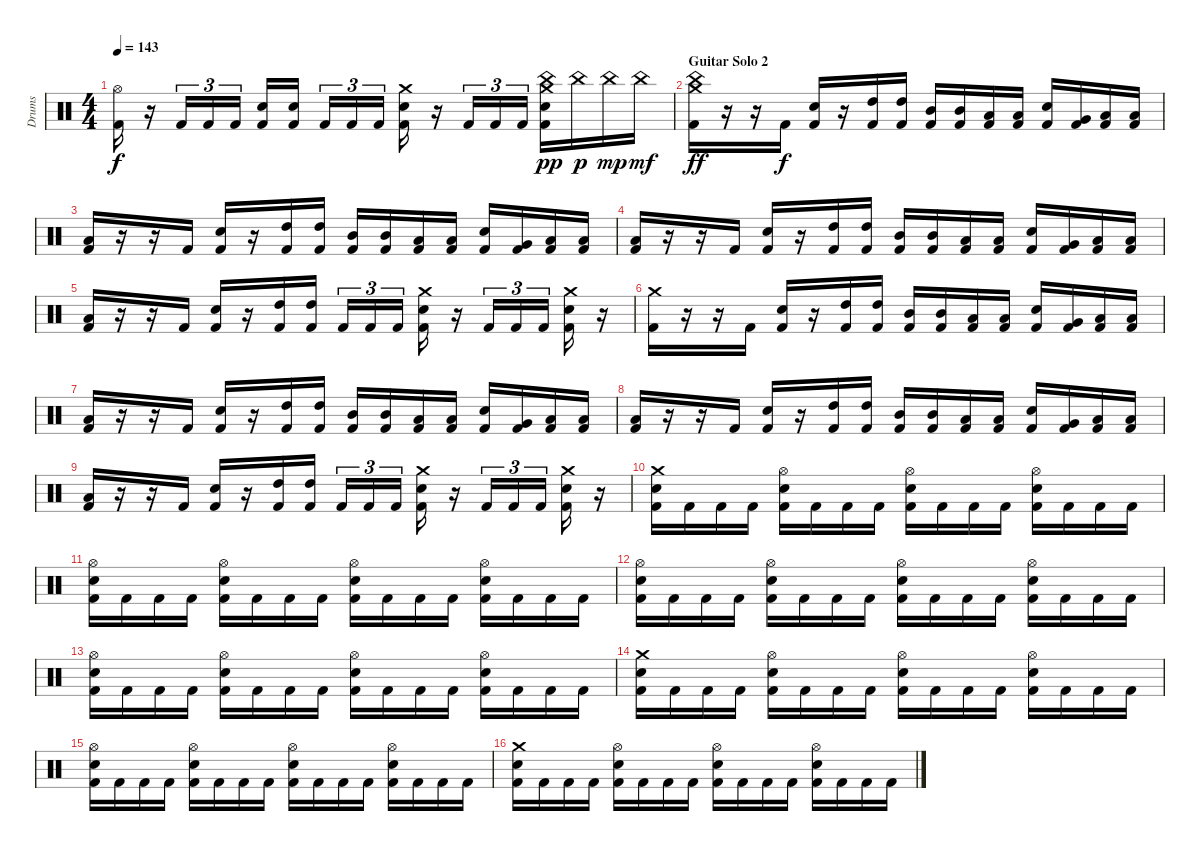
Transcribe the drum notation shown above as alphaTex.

\track ("Drums" "Drums") {instrument percussion}
\staff {score}
\articulation defaults
\ts (4 4)
\tempo 143
\clef neutral
\ks c
("Hi-Hat (open)" "Kick (hit) 2").16{dy f} r.16 "Kick (hit) 2".16{tu (3 2)} "Kick (hit) 2".16{tu (3 2)} "Kick (hit) 2".16{tu (3 2)} ("Electric Snare (hit)" "Kick (hit) 2").16 ("Electric Snare (hit)" "Kick (hit) 2").16 "Kick (hit) 2".16{tu (3 2)} "Kick (hit) 2".16{tu (3 2)} "Kick (hit) 2".16{tu (3 2)} ("Crash medium (hit)" "Electric Snare (hit)" "Kick (hit) 2").16 r.16 "Kick (hit) 2".16{tu (3 2)} "Kick (hit) 2".16{tu (3 2)} "Kick (hit) 2".16{tu (3 2)} ("Crash medium (hit)" "China (hit)" "Electric Snare (hit)" "Kick (hit) 2").16{dy pp} "China (hit)".16{dy p} "China (hit)".16{dy mp} "China (hit)".16{dy mf} |
\section ("" "Guitar Solo 2")
("Crash medium (hit)" "China (hit)" "Kick (hit) 2").16{dy ff} r.16 r.16 "Kick (hit) 2".16{dy f} ("Electric Snare (hit)" "Kick (hit) 2").16 r.16 ("High Tom (hit)" "Kick (hit) 2").16 ("High Tom (hit)" "Kick (hit) 2").16 ("Mid Tom (hit)" "Kick (hit) 2").16 ("Mid Tom (hit)" "Kick (hit) 2").16 ("Low Tom (hit)" "Kick (hit) 2").16 ("Low Tom (hit)" "Kick (hit) 2").16 ("Electric Snare (hit)" "Kick (hit) 2").16 ("Very Low Tom (hit)" "Kick (hit) 2").16 ("Low Floor Tom (hit)" "Kick (hit) 2").16 ("Low Floor Tom (hit)" "Kick (hit) 2").16 |
("Low Floor Tom (hit)" "Kick (hit) 2").16 r.16 r.16 "Kick (hit) 2".16 ("Electric Snare (hit)" "Kick (hit) 2").16 r.16 ("High Tom (hit)" "Kick (hit) 2").16 ("High Tom (hit)" "Kick (hit) 2").16 ("Mid Tom (hit)" "Kick (hit) 2").16 ("Mid Tom (hit)" "Kick (hit) 2").16 ("Low Tom (hit)" "Kick (hit) 2").16 ("Low Tom (hit)" "Kick (hit) 2").16 ("Electric Snare (hit)" "Kick (hit) 2").16 ("Very Low Tom (hit)" "Kick (hit) 2").16 ("Low Floor Tom (hit)" "Kick (hit) 2").16 ("Low Floor Tom (hit)" "Kick (hit) 2").16 |
("Low Floor Tom (hit)" "Kick (hit) 2").16 r.16 r.16 "Kick (hit) 2".16 ("Electric Snare (hit)" "Kick (hit) 2").16 r.16 ("High Tom (hit)" "Kick (hit) 2").16 ("High Tom (hit)" "Kick (hit) 2").16 ("Mid Tom (hit)" "Kick (hit) 2").16 ("Mid Tom (hit)" "Kick (hit) 2").16 ("Low Tom (hit)" "Kick (hit) 2").16 ("Low Tom (hit)" "Kick (hit) 2").16 ("Electric Snare (hit)" "Kick (hit) 2").16 ("Very Low Tom (hit)" "Kick (hit) 2").16 ("Low Floor Tom (hit)" "Kick (hit) 2").16 ("Low Floor Tom (hit)" "Kick (hit) 2").16 |
("Low Floor Tom (hit)" "Kick (hit) 2").16 r.16 r.16 "Kick (hit) 2".16 ("Electric Snare (hit)" "Kick (hit) 2").16 r.16 ("High Tom (hit)" "Kick (hit) 2").16 ("High Tom (hit)" "Kick (hit) 2").16 "Kick (hit) 2".16{tu (3 2)} "Kick (hit) 2".16{tu (3 2)} "Kick (hit) 2".16{tu (3 2)} ("Crash medium (hit)" "Electric Snare (hit)" "Kick (hit) 2").16 r.16 "Kick (hit) 2".16{tu (3 2)} "Kick (hit) 2".16{tu (3 2)} "Kick (hit) 2".16{tu (3 2)} ("Crash medium (hit)" "Electric Snare (hit)" "Kick (hit) 2").16 r.16 |
("Crash medium (hit)" "Kick (hit) 2").16 r.16 r.16 "Kick (hit) 2".16 ("Electric Snare (hit)" "Kick (hit) 2").16 r.16 ("High Tom (hit)" "Kick (hit) 2").16 ("High Tom (hit)" "Kick (hit) 2").16 ("Mid Tom (hit)" "Kick (hit) 2").16 ("Mid Tom (hit)" "Kick (hit) 2").16 ("Low Tom (hit)" "Kick (hit) 2").16 ("Low Tom (hit)" "Kick (hit) 2").16 ("Electric Snare (hit)" "Kick (hit) 2").16 ("Very Low Tom (hit)" "Kick (hit) 2").16 ("Low Floor Tom (hit)" "Kick (hit) 2").16 ("Low Floor Tom (hit)" "Kick (hit) 2").16 |
("Low Floor Tom (hit)" "Kick (hit) 2").16 r.16 r.16 "Kick (hit) 2".16 ("Electric Snare (hit)" "Kick (hit) 2").16 r.16 ("High Tom (hit)" "Kick (hit) 2").16 ("High Tom (hit)" "Kick (hit) 2").16 ("Mid Tom (hit)" "Kick (hit) 2").16 ("Mid Tom (hit)" "Kick (hit) 2").16 ("Low Tom (hit)" "Kick (hit) 2").16 ("Low Tom (hit)" "Kick (hit) 2").16 ("Electric Snare (hit)" "Kick (hit) 2").16 ("Very Low Tom (hit)" "Kick (hit) 2").16 ("Low Floor Tom (hit)" "Kick (hit) 2").16 ("Low Floor Tom (hit)" "Kick (hit) 2").16 |
("Low Floor Tom (hit)" "Kick (hit) 2").16 r.16 r.16 "Kick (hit) 2".16 ("Electric Snare (hit)" "Kick (hit) 2").16 r.16 ("High Tom (hit)" "Kick (hit) 2").16 ("High Tom (hit)" "Kick (hit) 2").16 ("Mid Tom (hit)" "Kick (hit) 2").16 ("Mid Tom (hit)" "Kick (hit) 2").16 ("Low Tom (hit)" "Kick (hit) 2").16 ("Low Tom (hit)" "Kick (hit) 2").16 ("Electric Snare (hit)" "Kick (hit) 2").16 ("Very Low Tom (hit)" "Kick (hit) 2").16 ("Low Floor Tom (hit)" "Kick (hit) 2").16 ("Low Floor Tom (hit)" "Kick (hit) 2").16 |
("Low Floor Tom (hit)" "Kick (hit) 2").16 r.16 r.16 "Kick (hit) 2".16 ("Electric Snare (hit)" "Kick (hit) 2").16 r.16 ("High Tom (hit)" "Kick (hit) 2").16 ("High Tom (hit)" "Kick (hit) 2").16 "Kick (hit) 2".16{tu (3 2)} "Kick (hit) 2".16{tu (3 2)} "Kick (hit) 2".16{tu (3 2)} ("Crash medium (hit)" "Electric Snare (hit)" "Kick (hit) 2").16 r.16 "Kick (hit) 2".16{tu (3 2)} "Kick (hit) 2".16{tu (3 2)} "Kick (hit) 2".16{tu (3 2)} ("Crash medium (hit)" "Electric Snare (hit)" "Kick (hit) 2").16 r.16 |
("Crash medium (hit)" "Electric Snare (hit)" "Kick (hit) 2").16 "Kick (hit) 2".16 "Kick (hit) 2".16 "Kick (hit) 2".16 ("Hi-Hat (open)" "Electric Snare (hit)" "Kick (hit) 2").16 "Kick (hit) 2".16 "Kick (hit) 2".16 "Kick (hit) 2".16 ("Hi-Hat (open)" "Electric Snare (hit)" "Kick (hit) 2").16 "Kick (hit) 2".16 "Kick (hit) 2".16 "Kick (hit) 2".16 ("Hi-Hat (open)" "Electric Snare (hit)" "Kick (hit) 2").16 "Kick (hit) 2".16 "Kick (hit) 2".16 "Kick (hit) 2".16 |
("Hi-Hat (open)" "Electric Snare (hit)" "Kick (hit) 2").16 "Kick (hit) 2".16 "Kick (hit) 2".16 "Kick (hit) 2".16 ("Hi-Hat (open)" "Electric Snare (hit)" "Kick (hit) 2").16 "Kick (hit) 2".16 "Kick (hit) 2".16 "Kick (hit) 2".16 ("Hi-Hat (open)" "Electric Snare (hit)" "Kick (hit) 2").16 "Kick (hit) 2".16 "Kick (hit) 2".16 "Kick (hit) 2".16 ("Hi-Hat (open)" "Electric Snare (hit)" "Kick (hit) 2").16 "Kick (hit) 2".16 "Kick (hit) 2".16 "Kick (hit) 2".16 |
("Hi-Hat (open)" "Electric Snare (hit)" "Kick (hit) 2").16 "Kick (hit) 2".16 "Kick (hit) 2".16 "Kick (hit) 2".16 ("Hi-Hat (open)" "Electric Snare (hit)" "Kick (hit) 2").16 "Kick (hit) 2".16 "Kick (hit) 2".16 "Kick (hit) 2".16 ("Hi-Hat (open)" "Electric Snare (hit)" "Kick (hit) 2").16 "Kick (hit) 2".16 "Kick (hit) 2".16 "Kick (hit) 2".16 ("Hi-Hat (open)" "Electric Snare (hit)" "Kick (hit) 2").16 "Kick (hit) 2".16 "Kick (hit) 2".16 "Kick (hit) 2".16 |
("Hi-Hat (open)" "Electric Snare (hit)" "Kick (hit) 2").16 "Kick (hit) 2".16 "Kick (hit) 2".16 "Kick (hit) 2".16 ("Hi-Hat (open)" "Electric Snare (hit)" "Kick (hit) 2").16 "Kick (hit) 2".16 "Kick (hit) 2".16 "Kick (hit) 2".16 ("Hi-Hat (open)" "Electric Snare (hit)" "Kick (hit) 2").16 "Kick (hit) 2".16 "Kick (hit) 2".16 "Kick (hit) 2".16 ("Hi-Hat (open)" "Electric Snare (hit)" "Kick (hit) 2").16 "Kick (hit) 2".16 "Kick (hit) 2".16 "Kick (hit) 2".16 |
("Crash medium (hit)" "Electric Snare (hit)" "Kick (hit) 2").16 "Kick (hit) 2".16 "Kick (hit) 2".16 "Kick (hit) 2".16 ("Hi-Hat (open)" "Electric Snare (hit)" "Kick (hit) 2").16 "Kick (hit) 2".16 "Kick (hit) 2".16 "Kick (hit) 2".16 ("Hi-Hat (open)" "Electric Snare (hit)" "Kick (hit) 2").16 "Kick (hit) 2".16 "Kick (hit) 2".16 "Kick (hit) 2".16 ("Hi-Hat (open)" "Electric Snare (hit)" "Kick (hit) 2").16 "Kick (hit) 2".16 "Kick (hit) 2".16 "Kick (hit) 2".16 |
("Hi-Hat (open)" "Electric Snare (hit)" "Kick (hit) 2").16 "Kick (hit) 2".16 "Kick (hit) 2".16 "Kick (hit) 2".16 ("Hi-Hat (open)" "Electric Snare (hit)" "Kick (hit) 2").16 "Kick (hit) 2".16 "Kick (hit) 2".16 "Kick (hit) 2".16 ("Hi-Hat (open)" "Electric Snare (hit)" "Kick (hit) 2").16 "Kick (hit) 2".16 "Kick (hit) 2".16 "Kick (hit) 2".16 ("Hi-Hat (open)" "Electric Snare (hit)" "Kick (hit) 2").16 "Kick (hit) 2".16 "Kick (hit) 2".16 "Kick (hit) 2".16 |
("Crash medium (hit)" "Electric Snare (hit)" "Kick (hit) 2").16 "Kick (hit) 2".16 "Kick (hit) 2".16 "Kick (hit) 2".16 ("Hi-Hat (open)" "Electric Snare (hit)" "Kick (hit) 2").16 "Kick (hit) 2".16 "Kick (hit) 2".16 "Kick (hit) 2".16 ("Hi-Hat (open)" "Electric Snare (hit)" "Kick (hit) 2").16 "Kick (hit) 2".16 "Kick (hit) 2".16 "Kick (hit) 2".16 ("Hi-Hat (open)" "Electric Snare (hit)" "Kick (hit) 2").16 "Kick (hit) 2".16 "Kick (hit) 2".16 "Kick (hit) 2".16
